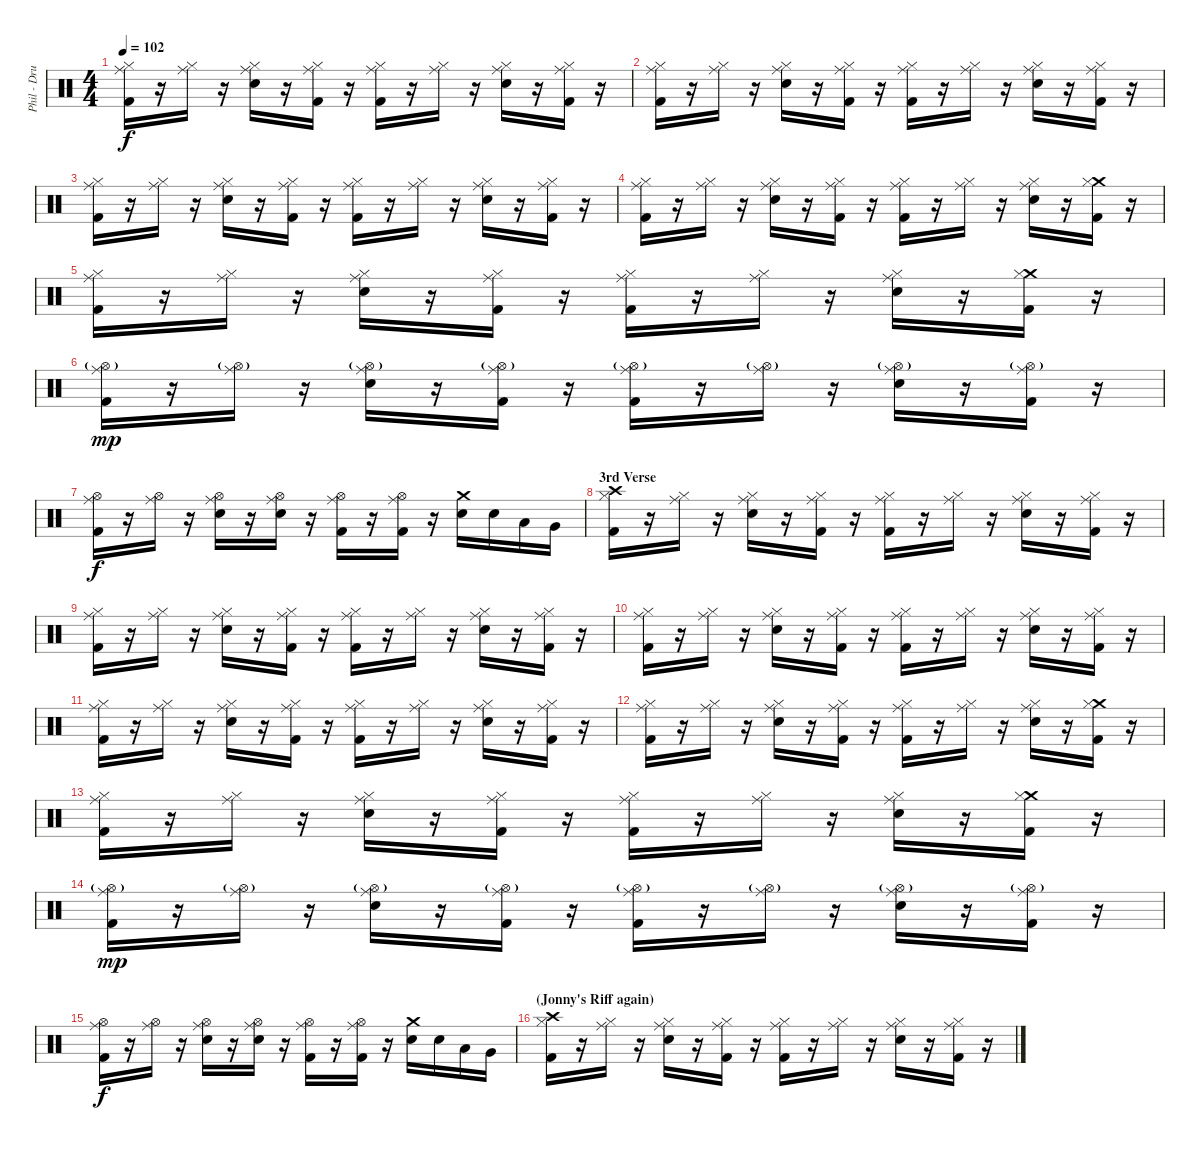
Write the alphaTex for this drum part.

\track ("Phil - Drums" "Phil - Dru") {instrument percussion}
\staff {score}
\articulation defaults
\ts (4 4)
\tempo 102
\clef neutral
\ks c
("Ride (middle)" "Kick (hit) 2" "Hi-Hat (closed)").16{dy f} r.16 ("Ride (middle)" "Hi-Hat (closed)").16 r.16 ("Ride (middle)" "Electric Snare (hit)" "Hi-Hat (closed)").16 r.16 ("Ride (middle)" "Kick (hit) 2" "Hi-Hat (closed)").16 r.16 ("Ride (middle)" "Kick (hit) 2" "Hi-Hat (closed)").16 r.16 ("Ride (middle)" "Hi-Hat (closed)").16 r.16 ("Ride (middle)" "Electric Snare (hit)" "Hi-Hat (closed)").16 r.16 ("Ride (middle)" "Kick (hit) 2" "Hi-Hat (closed)").16 r.16 |
("Ride (middle)" "Kick (hit) 2" "Hi-Hat (closed)").16 r.16 ("Ride (middle)" "Hi-Hat (closed)").16 r.16 ("Ride (middle)" "Electric Snare (hit)" "Hi-Hat (closed)").16 r.16 ("Ride (middle)" "Kick (hit) 2" "Hi-Hat (closed)").16 r.16 ("Ride (middle)" "Kick (hit) 2" "Hi-Hat (closed)").16 r.16 ("Ride (middle)" "Hi-Hat (closed)").16 r.16 ("Ride (middle)" "Electric Snare (hit)" "Hi-Hat (closed)").16 r.16 ("Ride (middle)" "Kick (hit) 2" "Hi-Hat (closed)").16 r.16 |
("Ride (middle)" "Kick (hit) 2" "Hi-Hat (closed)").16 r.16 ("Ride (middle)" "Hi-Hat (closed)").16 r.16 ("Ride (middle)" "Electric Snare (hit)" "Hi-Hat (closed)").16 r.16 ("Ride (middle)" "Kick (hit) 2" "Hi-Hat (closed)").16 r.16 ("Ride (middle)" "Kick (hit) 2" "Hi-Hat (closed)").16 r.16 ("Ride (middle)" "Hi-Hat (closed)").16 r.16 ("Ride (middle)" "Electric Snare (hit)" "Hi-Hat (closed)").16 r.16 ("Ride (middle)" "Kick (hit) 2" "Hi-Hat (closed)").16 r.16 |
("Ride (middle)" "Kick (hit) 2" "Hi-Hat (closed)").16 r.16 ("Ride (middle)" "Hi-Hat (closed)").16 r.16 ("Ride (middle)" "Electric Snare (hit)" "Hi-Hat (closed)").16 r.16 ("Ride (middle)" "Kick (hit) 2" "Hi-Hat (closed)").16 r.16 ("Ride (middle)" "Kick (hit) 2" "Hi-Hat (closed)").16 r.16 ("Ride (middle)" "Hi-Hat (closed)").16 r.16 ("Ride (middle)" "Electric Snare (hit)" "Hi-Hat (closed)").16 r.16 ("Crash medium (hit)" "Kick (hit) 2" "Hi-Hat (closed)").16 r.16 |
("Ride (middle)" "Kick (hit) 2" "Hi-Hat (closed)").16 r.16 ("Ride (middle)" "Hi-Hat (closed)").16 r.16 ("Ride (middle)" "Electric Snare (hit)" "Hi-Hat (closed)").16 r.16 ("Ride (middle)" "Kick (hit) 2" "Hi-Hat (closed)").16 r.16 ("Ride (middle)" "Kick (hit) 2" "Hi-Hat (closed)").16 r.16 ("Ride (middle)" "Hi-Hat (closed)").16 r.16 ("Ride (middle)" "Electric Snare (hit)" "Hi-Hat (closed)").16 r.16 ("Crash medium (hit)" "Kick (hit) 2" "Hi-Hat (closed)").16 r.16 |
("Ride (middle)" "Kick (hit) 2" "Hi-Hat (open)"{g}).16{dy mp} r.16 ("Ride (middle)" "Hi-Hat (open)"{g}).16 r.16 ("Ride (middle)" "Electric Snare (hit)" "Hi-Hat (open)"{g}).16 r.16 ("Ride (middle)" "Kick (hit) 2" "Hi-Hat (open)"{g}).16 r.16 ("Ride (middle)" "Kick (hit) 2" "Hi-Hat (open)"{g}).16 r.16 ("Ride (middle)" "Hi-Hat (open)"{g}).16 r.16 ("Ride (middle)" "Electric Snare (hit)" "Hi-Hat (open)"{g}).16 r.16 ("Ride (middle)" "Kick (hit) 2" "Hi-Hat (open)"{g}).16 r.16 |
("Ride (middle)" "Kick (hit) 2" "Hi-Hat (open)").16{dy f} r.16 ("Ride (middle)" "Hi-Hat (open)").16 r.16 ("Ride (middle)" "Electric Snare (hit)" "Hi-Hat (open)").16 r.16 ("Ride (middle)" "Electric Snare (hit)" "Hi-Hat (open)").16 r.16 ("Ride (middle)" "Kick (hit) 2" "Hi-Hat (open)").16 r.16 ("Ride (middle)" "Kick (hit) 2" "Hi-Hat (open)").16 r.16 ("Crash medium (hit)" "Electric Snare (hit)").16 "Electric Snare (hit)".16 "Low Tom (hit)".16 "Very Low Tom (hit)".16 |
\section ("" "3rd Verse")
("Crash high (hit)" "Kick (hit) 2" "Hi-Hat (closed)").16 r.16 ("Ride (middle)" "Hi-Hat (closed)").16 r.16 ("Ride (middle)" "Electric Snare (hit)" "Hi-Hat (closed)").16 r.16 ("Ride (middle)" "Kick (hit) 2" "Hi-Hat (closed)").16 r.16 ("Ride (middle)" "Kick (hit) 2" "Hi-Hat (closed)").16 r.16 ("Ride (middle)" "Hi-Hat (closed)").16 r.16 ("Ride (middle)" "Electric Snare (hit)" "Hi-Hat (closed)").16 r.16 ("Ride (middle)" "Kick (hit) 2" "Hi-Hat (closed)").16 r.16 |
("Ride (middle)" "Kick (hit) 2" "Hi-Hat (closed)").16 r.16 ("Ride (middle)" "Hi-Hat (closed)").16 r.16 ("Ride (middle)" "Electric Snare (hit)" "Hi-Hat (closed)").16 r.16 ("Ride (middle)" "Kick (hit) 2" "Hi-Hat (closed)").16 r.16 ("Ride (middle)" "Kick (hit) 2" "Hi-Hat (closed)").16 r.16 ("Ride (middle)" "Hi-Hat (closed)").16 r.16 ("Ride (middle)" "Electric Snare (hit)" "Hi-Hat (closed)").16 r.16 ("Ride (middle)" "Kick (hit) 2" "Hi-Hat (closed)").16 r.16 |
("Ride (middle)" "Kick (hit) 2" "Hi-Hat (closed)").16 r.16 ("Ride (middle)" "Hi-Hat (closed)").16 r.16 ("Ride (middle)" "Electric Snare (hit)" "Hi-Hat (closed)").16 r.16 ("Ride (middle)" "Kick (hit) 2" "Hi-Hat (closed)").16 r.16 ("Ride (middle)" "Kick (hit) 2" "Hi-Hat (closed)").16 r.16 ("Ride (middle)" "Hi-Hat (closed)").16 r.16 ("Ride (middle)" "Electric Snare (hit)" "Hi-Hat (closed)").16 r.16 ("Ride (middle)" "Kick (hit) 2" "Hi-Hat (closed)").16 r.16 |
("Ride (middle)" "Kick (hit) 2" "Hi-Hat (closed)").16 r.16 ("Ride (middle)" "Hi-Hat (closed)").16 r.16 ("Ride (middle)" "Electric Snare (hit)" "Hi-Hat (closed)").16 r.16 ("Ride (middle)" "Kick (hit) 2" "Hi-Hat (closed)").16 r.16 ("Ride (middle)" "Kick (hit) 2" "Hi-Hat (closed)").16 r.16 ("Ride (middle)" "Hi-Hat (closed)").16 r.16 ("Ride (middle)" "Electric Snare (hit)" "Hi-Hat (closed)").16 r.16 ("Ride (middle)" "Kick (hit) 2" "Hi-Hat (closed)").16 r.16 |
("Ride (middle)" "Kick (hit) 2" "Hi-Hat (closed)").16 r.16 ("Ride (middle)" "Hi-Hat (closed)").16 r.16 ("Ride (middle)" "Electric Snare (hit)" "Hi-Hat (closed)").16 r.16 ("Ride (middle)" "Kick (hit) 2" "Hi-Hat (closed)").16 r.16 ("Ride (middle)" "Kick (hit) 2" "Hi-Hat (closed)").16 r.16 ("Ride (middle)" "Hi-Hat (closed)").16 r.16 ("Ride (middle)" "Electric Snare (hit)" "Hi-Hat (closed)").16 r.16 ("Crash medium (hit)" "Kick (hit) 2" "Hi-Hat (closed)").16 r.16 |
("Ride (middle)" "Kick (hit) 2" "Hi-Hat (closed)").16 r.16 ("Ride (middle)" "Hi-Hat (closed)").16 r.16 ("Ride (middle)" "Electric Snare (hit)" "Hi-Hat (closed)").16 r.16 ("Ride (middle)" "Kick (hit) 2" "Hi-Hat (closed)").16 r.16 ("Ride (middle)" "Kick (hit) 2" "Hi-Hat (closed)").16 r.16 ("Ride (middle)" "Hi-Hat (closed)").16 r.16 ("Ride (middle)" "Electric Snare (hit)" "Hi-Hat (closed)").16 r.16 ("Crash medium (hit)" "Kick (hit) 2" "Hi-Hat (closed)").16 r.16 |
("Ride (middle)" "Kick (hit) 2" "Hi-Hat (open)"{g}).16{dy mp} r.16 ("Ride (middle)" "Hi-Hat (open)"{g}).16 r.16 ("Ride (middle)" "Electric Snare (hit)" "Hi-Hat (open)"{g}).16 r.16 ("Ride (middle)" "Kick (hit) 2" "Hi-Hat (open)"{g}).16 r.16 ("Ride (middle)" "Kick (hit) 2" "Hi-Hat (open)"{g}).16 r.16 ("Ride (middle)" "Hi-Hat (open)"{g}).16 r.16 ("Ride (middle)" "Electric Snare (hit)" "Hi-Hat (open)"{g}).16 r.16 ("Ride (middle)" "Kick (hit) 2" "Hi-Hat (open)"{g}).16 r.16 |
("Ride (middle)" "Kick (hit) 2" "Hi-Hat (open)").16{dy f} r.16 ("Ride (middle)" "Hi-Hat (open)").16 r.16 ("Ride (middle)" "Electric Snare (hit)" "Hi-Hat (open)").16 r.16 ("Ride (middle)" "Electric Snare (hit)" "Hi-Hat (open)").16 r.16 ("Ride (middle)" "Kick (hit) 2" "Hi-Hat (open)").16 r.16 ("Ride (middle)" "Kick (hit) 2" "Hi-Hat (open)").16 r.16 ("Crash medium (hit)" "Electric Snare (hit)").16 "Electric Snare (hit)".16 "Low Tom (hit)".16 "Very Low Tom (hit)".16 |
\section ("" "(Jonny's Riff again)")
("Crash high (hit)" "Kick (hit) 2" "Hi-Hat (closed)").16 r.16 ("Ride (middle)" "Hi-Hat (closed)").16 r.16 ("Ride (middle)" "Electric Snare (hit)" "Hi-Hat (closed)").16 r.16 ("Ride (middle)" "Kick (hit) 2" "Hi-Hat (closed)").16 r.16 ("Ride (middle)" "Kick (hit) 2" "Hi-Hat (closed)").16 r.16 ("Ride (middle)" "Hi-Hat (closed)").16 r.16 ("Ride (middle)" "Electric Snare (hit)" "Hi-Hat (closed)").16 r.16 ("Ride (middle)" "Kick (hit) 2" "Hi-Hat (closed)").16 r.16
